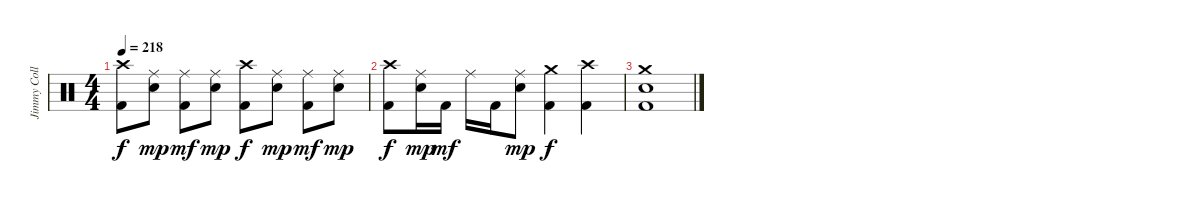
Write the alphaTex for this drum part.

\track ("Jimmy Colletti" "Jimmy Coll") {instrument percussion}
\staff {score}
\articulation defaults
\ts (4 4)
\section ("" "")
\tempo 218
\clef neutral
\ks c
("Crash high (hit)" "Kick (hit) 2").8{dy f} ("Ride (middle)" "Electric Snare (hit)").8{dy mp} ("Ride (middle)" "Kick (hit) 2").8{dy mf} ("Ride (middle)" "Electric Snare (hit)").8{dy mp} ("Crash high (hit)" "Kick (hit) 2").8{dy f} ("Ride (middle)" "Electric Snare (hit)").8{dy mp} ("Ride (middle)" "Kick (hit) 2").8{dy mf} ("Ride (middle)" "Electric Snare (hit)").8{dy mp} |
("Crash high (hit)" "Kick (hit) 2").8{dy f} ("Ride (middle)" "Electric Snare (hit)").16{dy mp} "Kick (hit) 2".16{dy mf} "Ride (middle)".16 "Kick (hit) 2".16 ("Ride (middle)" "Electric Snare (hit)").8{dy mp} ("Crash medium (hit)" "Kick (hit) 2").4{dy f} ("Crash high (hit)" "Kick (hit) 2").4 |
("Crash medium (hit)" "Electric Snare (hit)" "Kick (hit) 2").1
